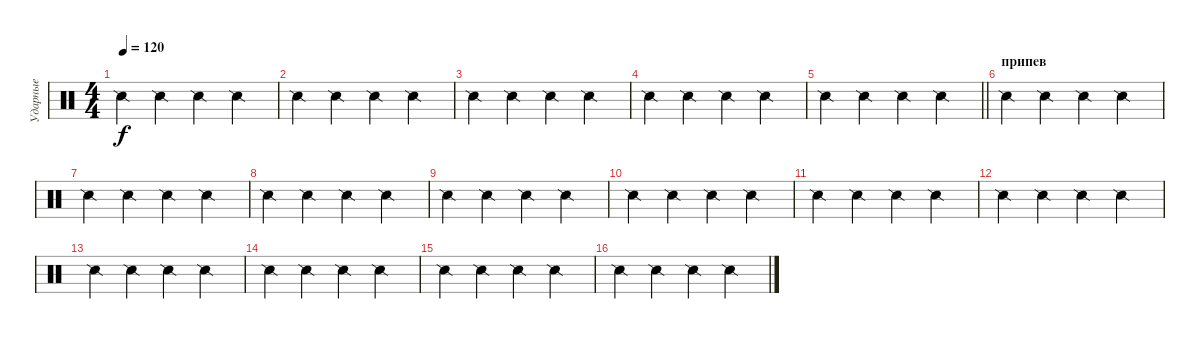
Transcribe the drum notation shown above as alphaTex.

\track ("Ударные" "Ударные") {mute instrument percussion}
\staff {score}
\articulation defaults
\ts (4 4)
\tempo 120
\clef neutral
\ks c "Snare (side stick) 2".4{dy f} "Snare (side stick) 2".4 "Snare (side stick) 2".4 "Snare (side stick) 2".4
|
"Snare (side stick) 2".4 "Snare (side stick) 2".4 "Snare (side stick) 2".4 "Snare (side stick) 2".4 |
"Snare (side stick) 2".4 "Snare (side stick) 2".4 "Snare (side stick) 2".4 "Snare (side stick) 2".4 |
"Snare (side stick) 2".4 "Snare (side stick) 2".4 "Snare (side stick) 2".4 "Snare (side stick) 2".4 |
\barLineRight lightlight "Snare (side stick) 2".4 "Snare (side stick) 2".4 "Snare (side stick) 2".4 "Snare (side stick) 2".4
|
\section ("" "припев")
"Snare (side stick) 2".4 "Snare (side stick) 2".4 "Snare (side stick) 2".4 "Snare (side stick) 2".4 |
"Snare (side stick) 2".4 "Snare (side stick) 2".4 "Snare (side stick) 2".4 "Snare (side stick) 2".4 |
"Snare (side stick) 2".4 "Snare (side stick) 2".4 "Snare (side stick) 2".4 "Snare (side stick) 2".4 |
"Snare (side stick) 2".4 "Snare (side stick) 2".4 "Snare (side stick) 2".4 "Snare (side stick) 2".4 |
"Snare (side stick) 2".4 "Snare (side stick) 2".4 "Snare (side stick) 2".4 "Snare (side stick) 2".4 |
"Snare (side stick) 2".4 "Snare (side stick) 2".4 "Snare (side stick) 2".4 "Snare (side stick) 2".4 |
"Snare (side stick) 2".4 "Snare (side stick) 2".4 "Snare (side stick) 2".4 "Snare (side stick) 2".4 |
"Snare (side stick) 2".4 "Snare (side stick) 2".4 "Snare (side stick) 2".4 "Snare (side stick) 2".4 |
"Snare (side stick) 2".4 "Snare (side stick) 2".4 "Snare (side stick) 2".4 "Snare (side stick) 2".4 |
"Snare (side stick) 2".4 "Snare (side stick) 2".4 "Snare (side stick) 2".4 "Snare (side stick) 2".4 |
"Snare (side stick) 2".4 "Snare (side stick) 2".4 "Snare (side stick) 2".4 "Snare (side stick) 2".4
